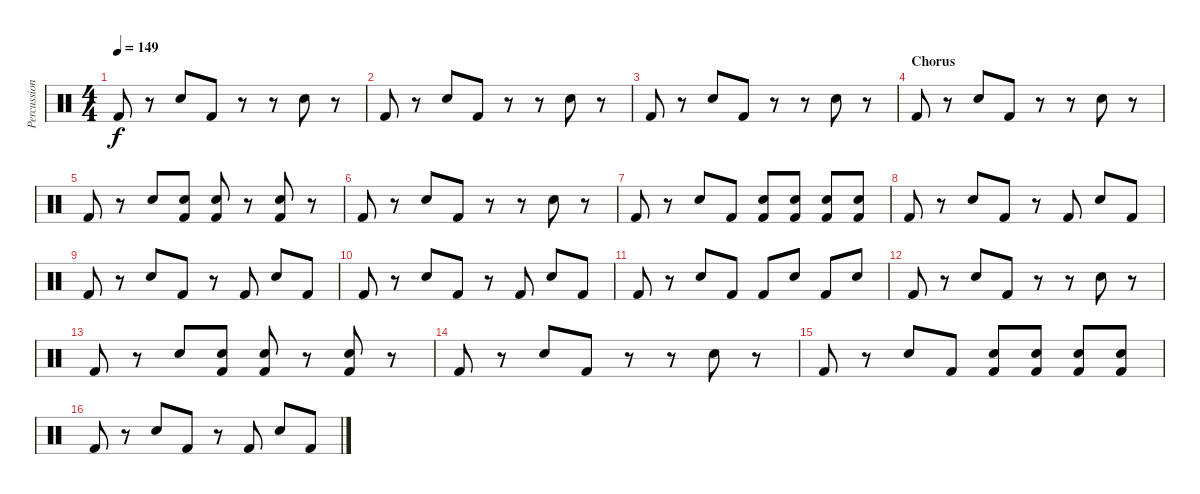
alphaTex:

\track ("Percussion" "Percussion") {instrument percussion}
\staff {score}
\articulation defaults
\ts (4 4)
\tempo 149
\clef neutral
\ks c "Kick (hit) 2".8{dy f}
r.8 "Hand Clap (hit)".8 "Kick (hit) 2".8 r.8 r.8 "Hand Clap (hit)".8 r.8 |
"Kick (hit) 2".8 r.8 "Hand Clap (hit)".8 "Kick (hit) 2".8 r.8 r.8 "Hand Clap (hit)".8 r.8 |
"Kick (hit) 2".8 r.8 "Hand Clap (hit)".8 "Kick (hit) 2".8 r.8 r.8 "Hand Clap (hit)".8 r.8 |
\section ("" "Chorus")
"Kick (hit) 2".8 r.8 "Hand Clap (hit)".8 "Kick (hit) 2".8 r.8 r.8 "Hand Clap (hit)".8 r.8 |
"Kick (hit) 2".8 r.8 "Hand Clap (hit)".8 ("Hand Clap (hit)" "Kick (hit) 2").8 ("Hand Clap (hit)" "Kick (hit) 2").8 r.8 ("Hand Clap (hit)" "Kick (hit) 2").8 r.8 |
"Kick (hit) 2".8 r.8 "Hand Clap (hit)".8 "Kick (hit) 2".8 r.8 r.8 "Hand Clap (hit)".8 r.8 |
"Kick (hit) 2".8 r.8 "Hand Clap (hit)".8 "Kick (hit) 2".8 ("Hand Clap (hit)" "Kick (hit) 2").8 ("Hand Clap (hit)" "Kick (hit) 2").8 ("Hand Clap (hit)" "Kick (hit) 2").8 ("Hand Clap (hit)" "Kick (hit) 2").8 |
"Kick (hit) 2".8 r.8 "Hand Clap (hit)".8 "Kick (hit) 2".8 r.8 "Kick (hit) 2".8 "Hand Clap (hit)".8 "Kick (hit) 2".8 |
"Kick (hit) 2".8 r.8 "Hand Clap (hit)".8 "Kick (hit) 2".8 r.8 "Kick (hit) 2".8 "Hand Clap (hit)".8 "Kick (hit) 2".8 |
"Kick (hit) 2".8 r.8 "Hand Clap (hit)".8 "Kick (hit) 2".8 r.8 "Kick (hit) 2".8 "Hand Clap (hit)".8 "Kick (hit) 2".8 |
"Kick (hit) 2".8 r.8 "Hand Clap (hit)".8 "Kick (hit) 2".8 "Kick (hit) 2".8 "Hand Clap (hit)".8 "Kick (hit) 2".8 "Hand Clap (hit)".8 |
"Kick (hit) 2".8 r.8 "Hand Clap (hit)".8 "Kick (hit) 2".8 r.8 r.8 "Hand Clap (hit)".8 r.8 |
"Kick (hit) 2".8 r.8 "Hand Clap (hit)".8 ("Hand Clap (hit)" "Kick (hit) 2").8 ("Hand Clap (hit)" "Kick (hit) 2").8 r.8 ("Hand Clap (hit)" "Kick (hit) 2").8 r.8 |
"Kick (hit) 2".8 r.8 "Hand Clap (hit)".8 "Kick (hit) 2".8 r.8 r.8 "Hand Clap (hit)".8 r.8 |
"Kick (hit) 2".8 r.8 "Hand Clap (hit)".8 "Kick (hit) 2".8 ("Hand Clap (hit)" "Kick (hit) 2").8 ("Hand Clap (hit)" "Kick (hit) 2").8 ("Hand Clap (hit)" "Kick (hit) 2").8 ("Hand Clap (hit)" "Kick (hit) 2").8 |
"Kick (hit) 2".8 r.8 "Hand Clap (hit)".8 "Kick (hit) 2".8 r.8 "Kick (hit) 2".8 "Hand Clap (hit)".8 "Kick (hit) 2".8
